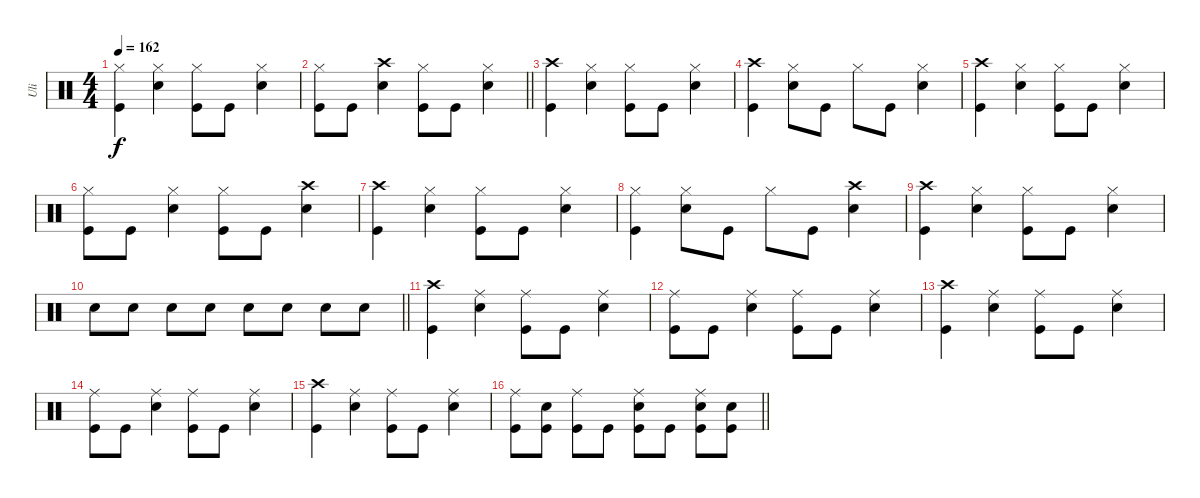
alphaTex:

\track ("Uli" "Uli") {instrument percussion}
\staff {score}
\articulation defaults
\ts (4 4)
\tempo 162
\clef neutral
\ks aminor
("Hi-Hat (closed)" "Kick (hit)").4{dy f} ("Hi-Hat (closed)" "Snare (hit) 2").4 ("Hi-Hat (closed)" "Kick (hit)").8 "Kick (hit)".8 ("Hi-Hat (closed)" "Snare (hit) 2").4 |
\barLineRight lightlight
("Hi-Hat (closed)" "Kick (hit)").8 "Kick (hit)".8 ("Crash high (hit)" "Snare (hit) 2").4 ("Hi-Hat (closed)" "Kick (hit)").8 "Kick (hit)".8 ("Hi-Hat (closed)" "Snare (hit) 2").4 |
("Crash high (hit)" "Kick (hit)").4 ("Hi-Hat (closed)" "Snare (hit) 2").4 ("Hi-Hat (closed)" "Kick (hit)").8 "Kick (hit)".8 ("Hi-Hat (closed)" "Snare (hit) 2").4 |
("Crash high (hit)" "Kick (hit)").4 ("Hi-Hat (closed)" "Snare (hit) 2").8 "Kick (hit)".8 "Hi-Hat (closed)".8 "Kick (hit)".8 ("Hi-Hat (closed)" "Snare (hit) 2").4 |
("Crash high (hit)" "Kick (hit)").4 ("Hi-Hat (closed)" "Snare (hit) 2").4 ("Hi-Hat (closed)" "Kick (hit)").8 "Kick (hit)".8 ("Hi-Hat (closed)" "Snare (hit) 2").4 |
("Hi-Hat (closed)" "Kick (hit)").8 "Kick (hit)".8 ("Hi-Hat (closed)" "Snare (hit) 2").4 ("Hi-Hat (closed)" "Kick (hit)").8 "Kick (hit)".8 ("Crash high (hit)" "Snare (hit) 2").4 |
("Crash high (hit)" "Kick (hit)").4 ("Hi-Hat (closed)" "Snare (hit) 2").4 ("Hi-Hat (closed)" "Kick (hit)").8 "Kick (hit)".8 ("Hi-Hat (closed)" "Snare (hit) 2").4 |
("Hi-Hat (closed)" "Kick (hit)").4 ("Hi-Hat (closed)" "Snare (hit) 2").8 "Kick (hit)".8 "Hi-Hat (closed)".8 "Kick (hit)".8 ("Crash high (hit)" "Snare (hit) 2").4 |
("Crash high (hit)" "Kick (hit)").4 ("Hi-Hat (closed)" "Snare (hit) 2").4 ("Hi-Hat (closed)" "Kick (hit)").8 "Kick (hit)".8 ("Hi-Hat (closed)" "Snare (hit) 2").4 |
\barLineRight lightlight "Snare (hit) 2".8 "Snare (hit) 2".8 "Snare (hit) 2".8 "Snare (hit) 2".8 "Snare (hit) 2".8 "Snare (hit) 2".8 "Snare (hit) 2".8 "Snare (hit) 2".8
|
("Crash high (hit)" "Kick (hit)").4 ("Ride (middle)" "Snare (hit) 2").4 ("Ride (middle)" "Kick (hit)").8 "Kick (hit)".8 ("Ride (middle)" "Snare (hit) 2").4 |
("Ride (middle)" "Kick (hit)").8 "Kick (hit)".8 ("Ride (middle)" "Snare (hit) 2").4 ("Ride (middle)" "Kick (hit)").8 "Kick (hit)".8 ("Ride (middle)" "Snare (hit) 2").4 |
("Crash high (hit)" "Kick (hit)").4 ("Ride (middle)" "Snare (hit) 2").4 ("Ride (middle)" "Kick (hit)").8 "Kick (hit)".8 ("Ride (middle)" "Snare (hit) 2").4 |
("Ride (middle)" "Kick (hit)").8 "Kick (hit)".8 ("Ride (middle)" "Snare (hit) 2").4 ("Ride (middle)" "Kick (hit)").8 "Kick (hit)".8 ("Ride (middle)" "Snare (hit) 2").4 |
("Crash high (hit)" "Kick (hit)").4 ("Ride (middle)" "Snare (hit) 2").4 ("Ride (middle)" "Kick (hit)").8 "Kick (hit)".8 ("Ride (middle)" "Snare (hit) 2").4 |
\barLineRight lightlight
("Ride (middle)" "Kick (hit)").8 ("Snare (hit) 2" "Kick (hit)").8 ("Ride (middle)" "Kick (hit)").8 "Kick (hit)".8 ("Ride (middle)" "Snare (hit) 2" "Kick (hit)").8 "Kick (hit)".8 ("Ride (middle)" "Snare (hit) 2" "Kick (hit)").8 ("Snare (hit) 2" "Kick (hit)").8
